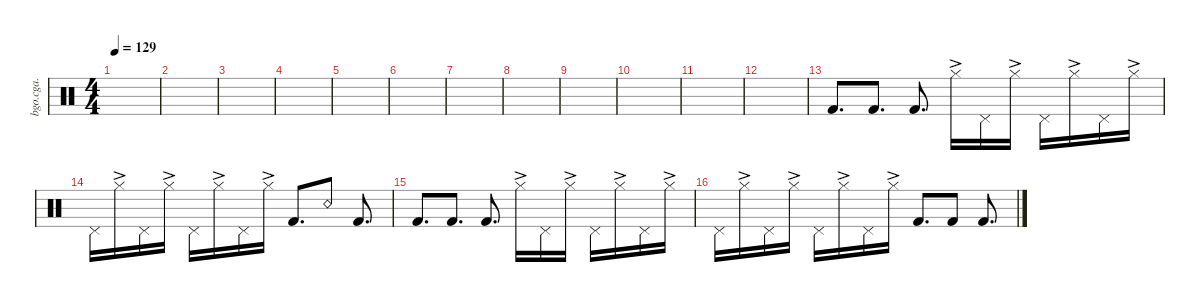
\defaultSystemsLayout 4
\hideDynamics
\bracketExtendMode nobrackets
\otherSystemsTrackNameOrientation horizontal
\track ("Alex's percussion" "bgo.cga.") {instrument percussion}
\staff {score}
\articulation defaults
\ts (4 4)
\tempo 129
\clef neutral
\ks c
|
|
|
|
|
|
|
|
|
|
|
|
"Kick (hit) 2".8{d} "Kick (hit) 2".8{d} "Kick (hit) 2".8{d} "Hi-Hat (closed)"{ac}.16 "Pedal Hi-Hat (hit)".16 "Hi-Hat (closed)"{ac}.16 "Pedal Hi-Hat (hit)".16 "Hi-Hat (closed)"{ac}.16 "Pedal Hi-Hat (hit)".16 "Hi-Hat (closed)"{ac}.16 |
"Pedal Hi-Hat (hit)".16 "Hi-Hat (closed)"{ac}.16 "Pedal Hi-Hat (hit)".16 "Hi-Hat (closed)"{ac}.16 "Pedal Hi-Hat (hit)".16 "Hi-Hat (closed)"{ac}.16 "Pedal Hi-Hat (hit)".16 "Hi-Hat (closed)"{ac}.16 "Kick (hit) 2".8{d} "Snare (rim shot)".8 "Kick (hit) 2".8{d} |
"Kick (hit) 2".8{d} "Kick (hit) 2".8{d} "Kick (hit) 2".8{d} "Hi-Hat (closed)"{ac}.16 "Pedal Hi-Hat (hit)".16 "Hi-Hat (closed)"{ac}.16 "Pedal Hi-Hat (hit)".16 "Hi-Hat (closed)"{ac}.16 "Pedal Hi-Hat (hit)".16 "Hi-Hat (closed)"{ac}.16 |
"Pedal Hi-Hat (hit)".16 "Hi-Hat (closed)"{ac}.16 "Pedal Hi-Hat (hit)".16 "Hi-Hat (closed)"{ac}.16 "Pedal Hi-Hat (hit)".16 "Hi-Hat (closed)"{ac}.16 "Pedal Hi-Hat (hit)".16 "Hi-Hat (closed)"{ac}.16 "Kick (hit) 2".8{d} "Kick (hit) 2".8 "Kick (hit) 2".8{d}
